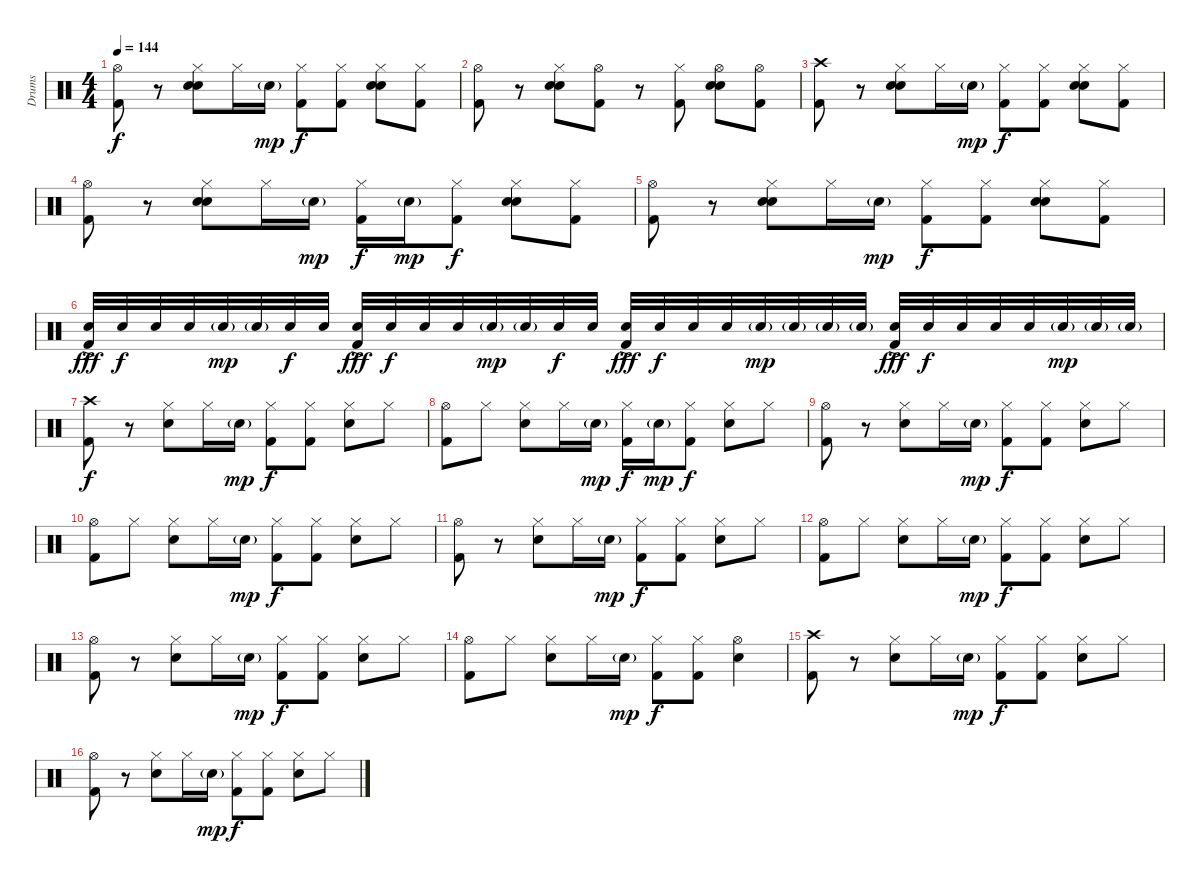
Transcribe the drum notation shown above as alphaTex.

\track ("Drums" "Drums") {instrument percussion}
\staff {score}
\articulation defaults
\ts (4 4)
\tempo 144
\clef neutral
\ks c
("Hi-Hat (open)" "Kick (hit) 2").8{dy f} r.8 ("Hi-Hat (closed)" "Snare (hit) 2" "Hand Clap (hit)").8 "Hi-Hat (closed)".16 "Snare (hit) 2"{g}.16{dy mp} ("Hi-Hat (closed)" "Kick (hit) 2").8{dy f} ("Hi-Hat (closed)" "Kick (hit) 2").8 ("Hi-Hat (closed)" "Snare (hit) 2" "Hand Clap (hit)").8 ("Hi-Hat (closed)" "Kick (hit) 2").8 |
("Hi-Hat (open)" "Kick (hit) 2").8 r.8 ("Hi-Hat (closed)" "Snare (hit) 2" "Hand Clap (hit)").8 ("Hi-Hat (open)" "Kick (hit) 2").8 r.8 ("Hi-Hat (closed)" "Kick (hit) 2").8 ("Hi-Hat (open)" "Snare (hit) 2" "Hand Clap (hit)").8 ("Hi-Hat (open)" "Kick (hit) 2").8 |
("Crash high (hit)" "Kick (hit) 2").8 r.8 ("Hi-Hat (closed)" "Snare (hit) 2" "Hand Clap (hit)").8 "Hi-Hat (closed)".16 "Snare (hit) 2"{g}.16{dy mp} ("Hi-Hat (closed)" "Kick (hit) 2").8{dy f} ("Hi-Hat (closed)" "Kick (hit) 2").8 ("Hi-Hat (closed)" "Snare (hit) 2" "Hand Clap (hit)").8 ("Hi-Hat (closed)" "Kick (hit) 2").8 |
("Hi-Hat (open)" "Kick (hit) 2").8 r.8 ("Hi-Hat (closed)" "Snare (hit) 2" "Hand Clap (hit)").8 "Hi-Hat (closed)".16 "Snare (hit) 2"{g}.16{dy mp} ("Hi-Hat (closed)" "Kick (hit) 2").16{dy f} "Snare (hit) 2"{g}.16{dy mp} ("Hi-Hat (closed)" "Kick (hit) 2").8{dy f} ("Hi-Hat (closed)" "Snare (hit) 2" "Hand Clap (hit)").8 ("Hi-Hat (closed)" "Kick (hit) 2").8 |
("Hi-Hat (open)" "Kick (hit) 2").8 r.8 ("Hi-Hat (closed)" "Snare (hit) 2" "Hand Clap (hit)").8 "Hi-Hat (closed)".16 "Snare (hit) 2"{g}.16{dy mp} ("Hi-Hat (closed)" "Kick (hit) 2").8{dy f} ("Hi-Hat (closed)" "Kick (hit) 2").8 ("Hi-Hat (closed)" "Snare (hit) 2" "Hand Clap (hit)").8 ("Hi-Hat (closed)" "Kick (hit) 2").8 |
("Snare (hit) 2"{ac} "Kick (hit) 2").32{dy fff} "Snare (hit) 2".32{dy f} "Snare (hit) 2".32 "Snare (hit) 2".32 "Snare (hit) 2"{g}.32{dy mp} "Snare (hit) 2"{g}.32 "Snare (hit) 2".32{dy f} "Snare (hit) 2".32 ("Snare (hit) 2"{ac} "Kick (hit) 2").32{dy fff} "Snare (hit) 2".32{dy f} "Snare (hit) 2".32 "Snare (hit) 2".32 "Snare (hit) 2"{g}.32{dy mp} "Snare (hit) 2"{g}.32 "Snare (hit) 2".32{dy f} "Snare (hit) 2".32 ("Snare (hit) 2"{ac} "Kick (hit) 2").32{dy fff} "Snare (hit) 2".32{dy f} "Snare (hit) 2".32 "Snare (hit) 2".32 "Snare (hit) 2"{g}.32{dy mp} "Snare (hit) 2"{g}.32 "Snare (hit) 2"{g}.32 "Snare (hit) 2"{g}.32 ("Snare (hit) 2"{ac} "Kick (hit) 2").32{dy fff} "Snare (hit) 2".32{dy f} "Snare (hit) 2".32 "Snare (hit) 2".32 "Snare (hit) 2".32 "Snare (hit) 2"{g}.32{dy mp} "Snare (hit) 2"{g}.32 "Snare (hit) 2"{g}.32 |
("Crash high (hit)" "Kick (hit) 2").8{dy f} r.8 ("Hi-Hat (closed)" "Snare (hit) 2").8 "Hi-Hat (closed)".16 "Snare (hit) 2"{g}.16{dy mp} ("Hi-Hat (closed)" "Kick (hit) 2").8{dy f} ("Hi-Hat (closed)" "Kick (hit) 2").8 ("Hi-Hat (closed)" "Snare (hit) 2").8 "Hi-Hat (closed)".8 |
("Hi-Hat (open)" "Kick (hit) 2").8 "Hi-Hat (closed)".8 ("Hi-Hat (closed)" "Snare (hit) 2").8 "Hi-Hat (closed)".16 "Snare (hit) 2"{g}.16{dy mp} ("Hi-Hat (closed)" "Kick (hit) 2").16{dy f} "Snare (hit) 2"{g}.16{dy mp} ("Hi-Hat (closed)" "Kick (hit) 2").8{dy f} ("Hi-Hat (closed)" "Snare (hit) 2").8 "Hi-Hat (closed)".8 |
("Hi-Hat (open)" "Kick (hit) 2").8 r.8 ("Hi-Hat (closed)" "Snare (hit) 2").8 "Hi-Hat (closed)".16 "Snare (hit) 2"{g}.16{dy mp} ("Hi-Hat (closed)" "Kick (hit) 2").8{dy f} ("Hi-Hat (closed)" "Kick (hit) 2").8 ("Hi-Hat (closed)" "Snare (hit) 2").8 "Hi-Hat (closed)".8 |
("Hi-Hat (open)" "Kick (hit) 2").8 "Hi-Hat (closed)".8 ("Hi-Hat (closed)" "Snare (hit) 2").8 "Hi-Hat (closed)".16 "Snare (hit) 2"{g}.16{dy mp} ("Hi-Hat (closed)" "Kick (hit) 2").8{dy f} ("Hi-Hat (closed)" "Kick (hit) 2").8 ("Hi-Hat (closed)" "Snare (hit) 2").8 "Hi-Hat (closed)".8 |
("Hi-Hat (open)" "Kick (hit) 2").8 r.8 ("Hi-Hat (closed)" "Snare (hit) 2").8 "Hi-Hat (closed)".16 "Snare (hit) 2"{g}.16{dy mp} ("Hi-Hat (closed)" "Kick (hit) 2").8{dy f} ("Hi-Hat (closed)" "Kick (hit) 2").8 ("Hi-Hat (closed)" "Snare (hit) 2").8 "Hi-Hat (closed)".8 |
("Hi-Hat (open)" "Kick (hit) 2").8 "Hi-Hat (closed)".8 ("Hi-Hat (closed)" "Snare (hit) 2").8 "Hi-Hat (closed)".16 "Snare (hit) 2"{g}.16{dy mp} ("Hi-Hat (closed)" "Kick (hit) 2").8{dy f} ("Hi-Hat (closed)" "Kick (hit) 2").8 ("Hi-Hat (closed)" "Snare (hit) 2").8 "Hi-Hat (closed)".8 |
("Hi-Hat (open)" "Kick (hit) 2").8 r.8 ("Hi-Hat (closed)" "Snare (hit) 2").8 "Hi-Hat (closed)".16 "Snare (hit) 2"{g}.16{dy mp} ("Hi-Hat (closed)" "Kick (hit) 2").8{dy f} ("Hi-Hat (closed)" "Kick (hit) 2").8 ("Hi-Hat (closed)" "Snare (hit) 2").8 "Hi-Hat (closed)".8 |
("Hi-Hat (open)" "Kick (hit) 2").8 "Hi-Hat (closed)".8 ("Hi-Hat (closed)" "Snare (hit) 2").8 "Hi-Hat (closed)".16 "Snare (hit) 2"{g}.16{dy mp} ("Hi-Hat (closed)" "Kick (hit) 2").8{dy f} ("Hi-Hat (closed)" "Kick (hit) 2").8 ("Hi-Hat (open)" "Snare (hit) 2").4 |
("Crash high (hit)" "Kick (hit) 2").8 r.8 ("Hi-Hat (closed)" "Snare (hit) 2").8 "Hi-Hat (closed)".16 "Snare (hit) 2"{g}.16{dy mp} ("Hi-Hat (closed)" "Kick (hit) 2").8{dy f} ("Hi-Hat (closed)" "Kick (hit) 2").8 ("Hi-Hat (closed)" "Snare (hit) 2").8 "Hi-Hat (closed)".8 |
("Hi-Hat (open)" "Kick (hit) 2").8 r.8 ("Hi-Hat (closed)" "Snare (hit) 2").8 "Hi-Hat (closed)".16 "Snare (hit) 2"{g}.16{dy mp} ("Hi-Hat (closed)" "Kick (hit) 2").8{dy f} ("Hi-Hat (closed)" "Kick (hit) 2").8 ("Hi-Hat (closed)" "Snare (hit) 2").8 "Hi-Hat (closed)".8
